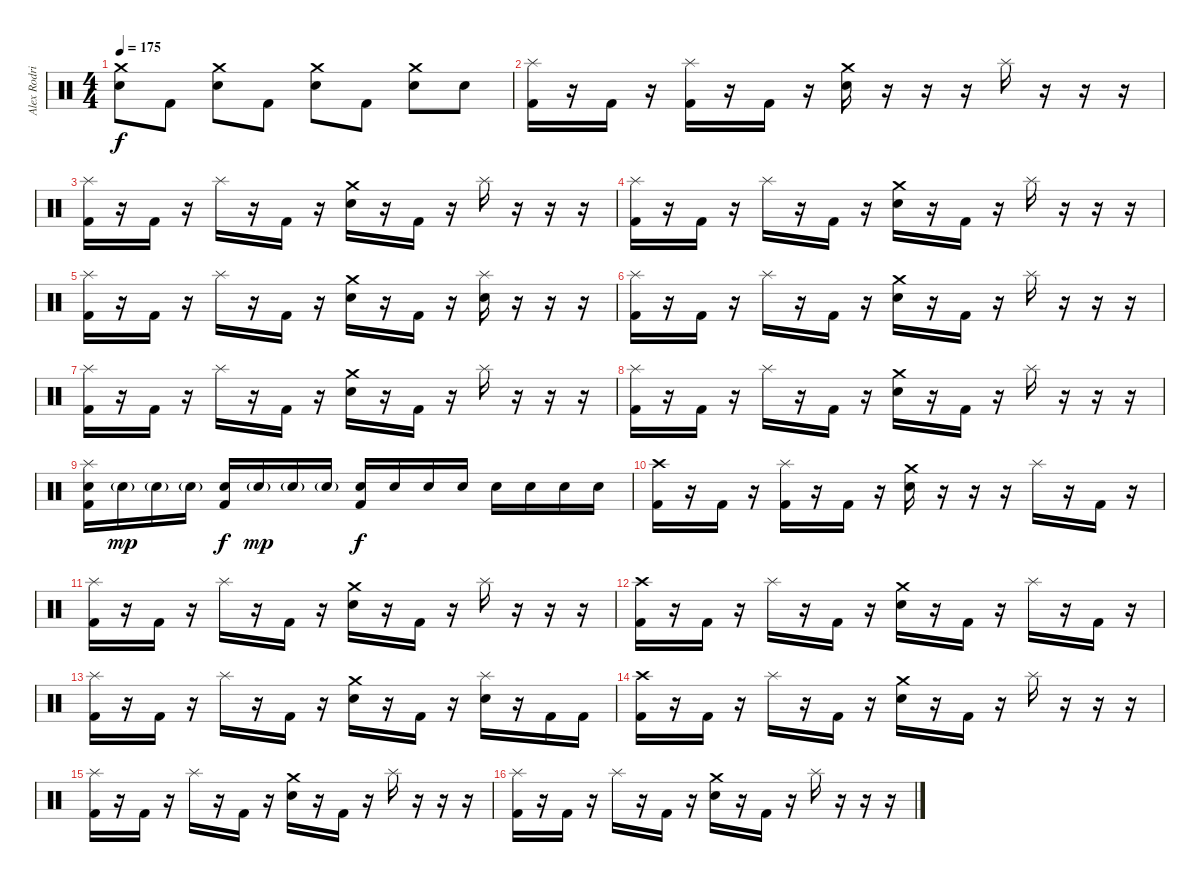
\track ("Alex Rodriguez" "Alex Rodri") {instrument percussion}
\staff {score}
\articulation defaults
\ts (4 4)
\tempo 175
\clef neutral
\ks c
("Crash medium (hit)" "Electric Snare (hit)").8{dy f} "Kick (hit) 2".8 ("Crash medium (hit)" "Electric Snare (hit)").8 "Kick (hit) 2".8 ("Crash medium (hit)" "Electric Snare (hit)").8 "Kick (hit) 2".8 ("Crash medium (hit)" "Electric Snare (hit)").8 "Electric Snare (hit)".8 |
("Splash (hit)" "Kick (hit) 2").16 r.16 "Kick (hit) 2".16 r.16 ("Splash (hit)" "Kick (hit) 2").16 r.16 "Kick (hit) 2".16 r.16 ("Crash medium (hit)" "Electric Snare (hit)").16 r.16 r.16 r.16 "Splash (hit)".16 r.16 r.16 r.16 |
("Splash (hit)" "Kick (hit) 2").16 r.16 "Kick (hit) 2".16 r.16 "Splash (hit)".16 r.16 "Kick (hit) 2".16 r.16 ("Crash medium (hit)" "Electric Snare (hit)").16 r.16 "Kick (hit) 2".16 r.16 "Splash (hit)".16 r.16 r.16 r.16 |
("Splash (hit)" "Kick (hit) 2").16 r.16 "Kick (hit) 2".16 r.16 "Splash (hit)".16 r.16 "Kick (hit) 2".16 r.16 ("Crash medium (hit)" "Electric Snare (hit)").16 r.16 "Kick (hit) 2".16 r.16 "Splash (hit)".16 r.16 r.16 r.16 |
("Splash (hit)" "Kick (hit) 2").16 r.16 "Kick (hit) 2".16 r.16 "Splash (hit)".16 r.16 "Kick (hit) 2".16 r.16 ("Crash medium (hit)" "Electric Snare (hit)").16 r.16 "Kick (hit) 2".16 r.16 ("Splash (hit)" "Electric Snare (hit)").16 r.16 r.16 r.16 |
("Splash (hit)" "Kick (hit) 2").16 r.16 "Kick (hit) 2".16 r.16 "Splash (hit)".16 r.16 "Kick (hit) 2".16 r.16 ("Crash medium (hit)" "Electric Snare (hit)").16 r.16 "Kick (hit) 2".16 r.16 "Splash (hit)".16 r.16 r.16 r.16 |
("Splash (hit)" "Kick (hit) 2").16 r.16 "Kick (hit) 2".16 r.16 "Splash (hit)".16 r.16 "Kick (hit) 2".16 r.16 ("Crash medium (hit)" "Electric Snare (hit)").16 r.16 "Kick (hit) 2".16 r.16 "Splash (hit)".16 r.16 r.16 r.16 |
("Splash (hit)" "Kick (hit) 2").16 r.16 "Kick (hit) 2".16 r.16 "Splash (hit)".16 r.16 "Kick (hit) 2".16 r.16 ("Crash medium (hit)" "Electric Snare (hit)").16 r.16 "Kick (hit) 2".16 r.16 "Splash (hit)".16 r.16 r.16 r.16 |
("Splash (hit)" "Electric Snare (hit)" "Kick (hit) 2").16 "Electric Snare (hit)"{g}.16{dy mp} "Electric Snare (hit)"{g}.16 "Electric Snare (hit)"{g}.16 ("Electric Snare (hit)" "Kick (hit) 2").16{dy f} "Electric Snare (hit)"{g}.16{dy mp} "Electric Snare (hit)"{g}.16 "Electric Snare (hit)"{g}.16 ("Electric Snare (hit)" "Kick (hit) 2").16{dy f} "Electric Snare (hit)".16 "Electric Snare (hit)".16 "Electric Snare (hit)".16 "Electric Snare (hit)".16 "Electric Snare (hit)".16 "Electric Snare (hit)".16 "Electric Snare (hit)".16 |
("Crash high (hit)" "Kick (hit) 2").16 r.16 "Kick (hit) 2".16 r.16 ("Splash (hit)" "Kick (hit) 2").16 r.16 "Kick (hit) 2".16 r.16 ("Crash medium (hit)" "Electric Snare (hit)").16 r.16 r.16 r.16 "Splash (hit)".16 r.16 "Kick (hit) 2".16 r.16 |
("Splash (hit)" "Kick (hit) 2").16 r.16 "Kick (hit) 2".16 r.16 "Splash (hit)".16 r.16 "Kick (hit) 2".16 r.16 ("Crash medium (hit)" "Electric Snare (hit)").16 r.16 "Kick (hit) 2".16 r.16 "Splash (hit)".16 r.16 r.16 r.16 |
("Crash high (hit)" "Kick (hit) 2").16 r.16 "Kick (hit) 2".16 r.16 "Splash (hit)".16 r.16 "Kick (hit) 2".16 r.16 ("Crash medium (hit)" "Electric Snare (hit)").16 r.16 "Kick (hit) 2".16 r.16 "Splash (hit)".16 r.16 "Kick (hit) 2".16 r.16 |
("Splash (hit)" "Kick (hit) 2").16 r.16 "Kick (hit) 2".16 r.16 "Splash (hit)".16 r.16 "Kick (hit) 2".16 r.16 ("Crash medium (hit)" "Electric Snare (hit)").16 r.16 "Kick (hit) 2".16 r.16 ("Splash (hit)" "Electric Snare (hit)").16 r.16 "Kick (hit) 2".16 "Kick (hit) 2".16 |
("Crash high (hit)" "Kick (hit) 2").16 r.16 "Kick (hit) 2".16 r.16 "Splash (hit)".16 r.16 "Kick (hit) 2".16 r.16 ("Crash medium (hit)" "Electric Snare (hit)").16 r.16 "Kick (hit) 2".16 r.16 "Splash (hit)".16 r.16 r.16 r.16 |
("Splash (hit)" "Kick (hit) 2").16 r.16 "Kick (hit) 2".16 r.16 "Splash (hit)".16 r.16 "Kick (hit) 2".16 r.16 ("Crash medium (hit)" "Electric Snare (hit)").16 r.16 "Kick (hit) 2".16 r.16 "Splash (hit)".16 r.16 r.16 r.16 |
("Splash (hit)" "Kick (hit) 2").16 r.16 "Kick (hit) 2".16 r.16 "Splash (hit)".16 r.16 "Kick (hit) 2".16 r.16 ("Crash medium (hit)" "Electric Snare (hit)").16 r.16 "Kick (hit) 2".16 r.16 "Splash (hit)".16 r.16 r.16 r.16
